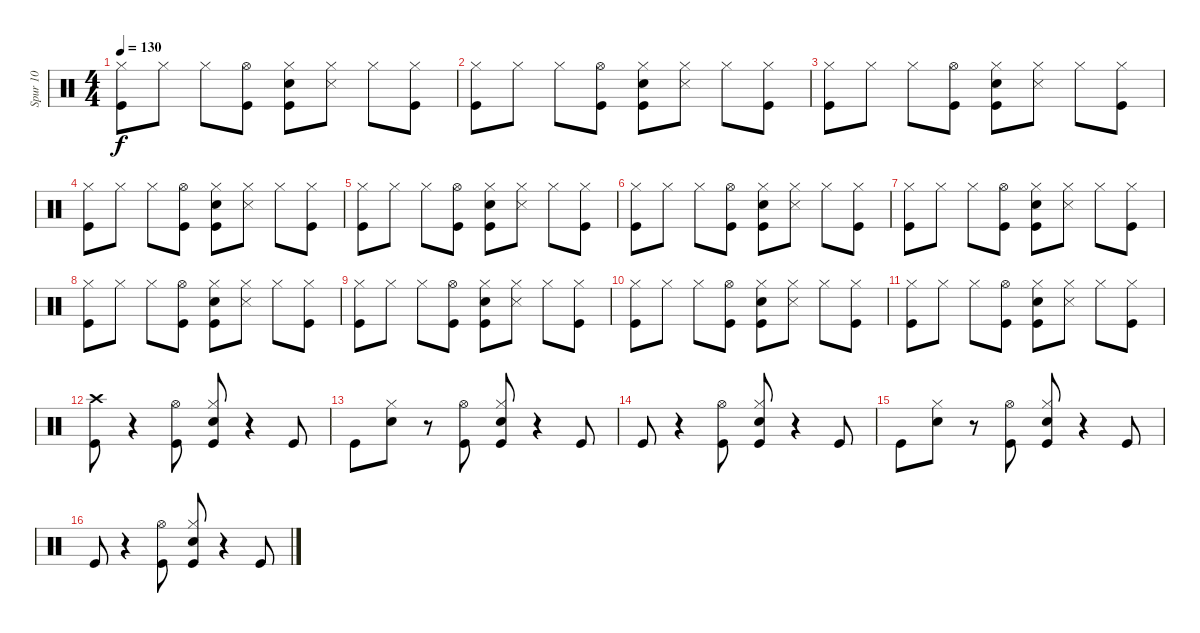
\track ("Spur 10" "Spur 10") {instrument percussion}
\staff {score}
\articulation defaults
\ts (4 4)
\tempo 130
\clef neutral
\ks c
("Kick (hit)" "Hi-Hat (closed)").8{dy f} "Hi-Hat (closed)".8 "Hi-Hat (closed)".8 ("Kick (hit)" "Hi-Hat (open)").8 ("Snare (hit) 2" "Kick (hit)" "Hi-Hat (closed)").8 ("Snare (side stick) 3" "Hi-Hat (closed)").8 "Hi-Hat (closed)".8 ("Kick (hit)" "Hi-Hat (closed)").8 |
("Kick (hit)" "Hi-Hat (closed)").8 "Hi-Hat (closed)".8 "Hi-Hat (closed)".8 ("Kick (hit)" "Hi-Hat (open)").8 ("Snare (hit) 2" "Kick (hit)" "Hi-Hat (closed)").8 ("Snare (side stick) 3" "Hi-Hat (closed)").8 "Hi-Hat (closed)".8 ("Kick (hit)" "Hi-Hat (closed)").8 |
("Kick (hit)" "Hi-Hat (closed)").8 "Hi-Hat (closed)".8 "Hi-Hat (closed)".8 ("Kick (hit)" "Hi-Hat (open)").8 ("Snare (hit) 2" "Kick (hit)" "Hi-Hat (closed)").8 ("Snare (side stick) 3" "Hi-Hat (closed)").8 "Hi-Hat (closed)".8 ("Kick (hit)" "Hi-Hat (closed)").8 |
("Kick (hit)" "Hi-Hat (closed)").8 "Hi-Hat (closed)".8 "Hi-Hat (closed)".8 ("Kick (hit)" "Hi-Hat (open)").8 ("Snare (hit) 2" "Kick (hit)" "Hi-Hat (closed)").8 ("Snare (side stick) 3" "Hi-Hat (closed)").8 "Hi-Hat (closed)".8 ("Kick (hit)" "Hi-Hat (closed)").8 |
("Kick (hit)" "Hi-Hat (closed)").8 "Hi-Hat (closed)".8 "Hi-Hat (closed)".8 ("Kick (hit)" "Hi-Hat (open)").8 ("Snare (hit) 2" "Kick (hit)" "Hi-Hat (closed)").8 ("Snare (side stick) 3" "Hi-Hat (closed)").8 "Hi-Hat (closed)".8 ("Kick (hit)" "Hi-Hat (closed)").8 |
("Kick (hit)" "Hi-Hat (closed)").8 "Hi-Hat (closed)".8 "Hi-Hat (closed)".8 ("Kick (hit)" "Hi-Hat (open)").8 ("Snare (hit) 2" "Kick (hit)" "Hi-Hat (closed)").8 ("Snare (side stick) 3" "Hi-Hat (closed)").8 "Hi-Hat (closed)".8 ("Kick (hit)" "Hi-Hat (closed)").8 |
("Kick (hit)" "Hi-Hat (closed)").8 "Hi-Hat (closed)".8 "Hi-Hat (closed)".8 ("Kick (hit)" "Hi-Hat (open)").8 ("Snare (hit) 2" "Kick (hit)" "Hi-Hat (closed)").8 ("Snare (side stick) 3" "Hi-Hat (closed)").8 "Hi-Hat (closed)".8 ("Kick (hit)" "Hi-Hat (closed)").8 |
("Kick (hit)" "Hi-Hat (closed)").8 "Hi-Hat (closed)".8 "Hi-Hat (closed)".8 ("Kick (hit)" "Hi-Hat (open)").8 ("Snare (hit) 2" "Kick (hit)" "Hi-Hat (closed)").8 ("Snare (side stick) 3" "Hi-Hat (closed)").8 "Hi-Hat (closed)".8 ("Kick (hit)" "Hi-Hat (closed)").8 |
("Kick (hit)" "Hi-Hat (closed)").8 "Hi-Hat (closed)".8 "Hi-Hat (closed)".8 ("Kick (hit)" "Hi-Hat (open)").8 ("Snare (hit) 2" "Kick (hit)" "Hi-Hat (closed)").8 ("Snare (side stick) 3" "Hi-Hat (closed)").8 "Hi-Hat (closed)".8 ("Kick (hit)" "Hi-Hat (closed)").8 |
("Kick (hit)" "Hi-Hat (closed)").8 "Hi-Hat (closed)".8 "Hi-Hat (closed)".8 ("Kick (hit)" "Hi-Hat (open)").8 ("Snare (hit) 2" "Kick (hit)" "Hi-Hat (closed)").8 ("Snare (side stick) 3" "Hi-Hat (closed)").8 "Hi-Hat (closed)".8 ("Kick (hit)" "Hi-Hat (closed)").8 |
("Kick (hit)" "Hi-Hat (closed)").8 "Hi-Hat (closed)".8 "Hi-Hat (closed)".8 ("Kick (hit)" "Hi-Hat (open)").8 ("Snare (hit) 2" "Kick (hit)" "Hi-Hat (closed)").8 ("Snare (side stick) 3" "Hi-Hat (closed)").8 "Hi-Hat (closed)".8 ("Kick (hit)" "Hi-Hat (closed)").8 |
("Kick (hit)" "Crash high (hit)").8 r.4 ("Hi-Hat (open)" "Kick (hit)").8 ("Hi-Hat (closed)" "Snare (hit) 2" "Kick (hit)").8 r.4 "Kick (hit)".8 |
"Kick (hit)".8 ("Hi-Hat (closed)" "Snare (hit) 2").8 r.8 ("Kick (hit)" "Hi-Hat (open)").8 ("Hi-Hat (closed)" "Snare (hit) 2" "Kick (hit)").8 r.4 "Kick (hit)".8 |
"Kick (hit)".8 r.4 ("Hi-Hat (open)" "Kick (hit)").8 ("Hi-Hat (closed)" "Snare (hit) 2" "Kick (hit)").8 r.4 "Kick (hit)".8 |
"Kick (hit)".8 ("Snare (hit) 2" "Hi-Hat (closed)").8 r.8 ("Kick (hit)" "Hi-Hat (open)").8 ("Hi-Hat (closed)" "Snare (hit) 2" "Kick (hit)").8 r.4 "Kick (hit)".8 |
"Kick (hit)".8 r.4 ("Hi-Hat (open)" "Kick (hit)").8 ("Hi-Hat (closed)" "Snare (hit) 2" "Kick (hit)").8 r.4 "Kick (hit)".8
